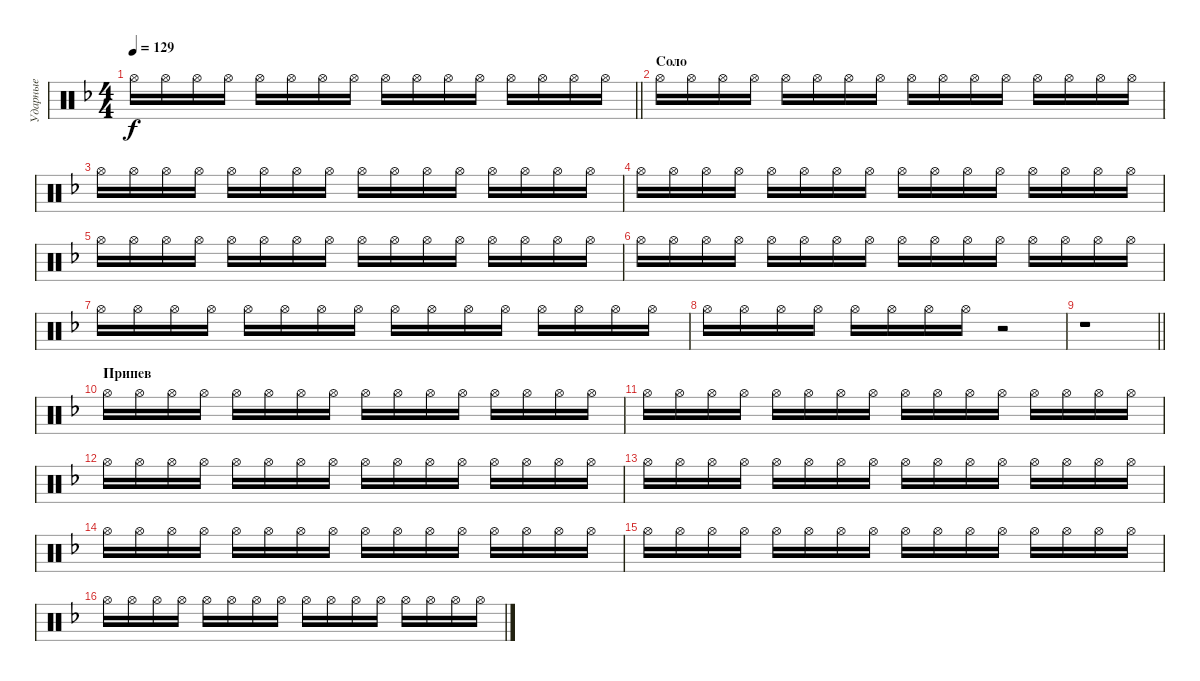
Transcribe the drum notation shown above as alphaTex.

\track ("Ударные" "Ударные") {instrument percussion}
\staff {score}
\articulation defaults
\ts (4 4)
\tempo 129
\clef neutral
\barLineRight lightlight
\ks dminor "Hi-Hat (open)".16{dy f} "Hi-Hat (open)".16 "Hi-Hat (open)".16 "Hi-Hat (open)".16 "Hi-Hat (open)".16 "Hi-Hat (open)".16 "Hi-Hat (open)".16 "Hi-Hat (open)".16 "Hi-Hat (open)".16 "Hi-Hat (open)".16 "Hi-Hat (open)".16 "Hi-Hat (open)".16 "Hi-Hat (open)".16 "Hi-Hat (open)".16 "Hi-Hat (open)".16 "Hi-Hat (open)".16
|
\section ("" "Соло")
"Hi-Hat (open)".16 "Hi-Hat (open)".16 "Hi-Hat (open)".16 "Hi-Hat (open)".16 "Hi-Hat (open)".16 "Hi-Hat (open)".16 "Hi-Hat (open)".16 "Hi-Hat (open)".16 "Hi-Hat (open)".16 "Hi-Hat (open)".16 "Hi-Hat (open)".16 "Hi-Hat (open)".16 "Hi-Hat (open)".16 "Hi-Hat (open)".16 "Hi-Hat (open)".16 "Hi-Hat (open)".16 |
"Hi-Hat (open)".16 "Hi-Hat (open)".16 "Hi-Hat (open)".16 "Hi-Hat (open)".16 "Hi-Hat (open)".16 "Hi-Hat (open)".16 "Hi-Hat (open)".16 "Hi-Hat (open)".16 "Hi-Hat (open)".16 "Hi-Hat (open)".16 "Hi-Hat (open)".16 "Hi-Hat (open)".16 "Hi-Hat (open)".16 "Hi-Hat (open)".16 "Hi-Hat (open)".16 "Hi-Hat (open)".16 |
"Hi-Hat (open)".16 "Hi-Hat (open)".16 "Hi-Hat (open)".16 "Hi-Hat (open)".16 "Hi-Hat (open)".16 "Hi-Hat (open)".16 "Hi-Hat (open)".16 "Hi-Hat (open)".16 "Hi-Hat (open)".16 "Hi-Hat (open)".16 "Hi-Hat (open)".16 "Hi-Hat (open)".16 "Hi-Hat (open)".16 "Hi-Hat (open)".16 "Hi-Hat (open)".16 "Hi-Hat (open)".16 |
"Hi-Hat (open)".16 "Hi-Hat (open)".16 "Hi-Hat (open)".16 "Hi-Hat (open)".16 "Hi-Hat (open)".16 "Hi-Hat (open)".16 "Hi-Hat (open)".16 "Hi-Hat (open)".16 "Hi-Hat (open)".16 "Hi-Hat (open)".16 "Hi-Hat (open)".16 "Hi-Hat (open)".16 "Hi-Hat (open)".16 "Hi-Hat (open)".16 "Hi-Hat (open)".16 "Hi-Hat (open)".16 |
"Hi-Hat (open)".16 "Hi-Hat (open)".16 "Hi-Hat (open)".16 "Hi-Hat (open)".16 "Hi-Hat (open)".16 "Hi-Hat (open)".16 "Hi-Hat (open)".16 "Hi-Hat (open)".16 "Hi-Hat (open)".16 "Hi-Hat (open)".16 "Hi-Hat (open)".16 "Hi-Hat (open)".16 "Hi-Hat (open)".16 "Hi-Hat (open)".16 "Hi-Hat (open)".16 "Hi-Hat (open)".16 |
"Hi-Hat (open)".16 "Hi-Hat (open)".16 "Hi-Hat (open)".16 "Hi-Hat (open)".16 "Hi-Hat (open)".16 "Hi-Hat (open)".16 "Hi-Hat (open)".16 "Hi-Hat (open)".16 "Hi-Hat (open)".16 "Hi-Hat (open)".16 "Hi-Hat (open)".16 "Hi-Hat (open)".16 "Hi-Hat (open)".16 "Hi-Hat (open)".16 "Hi-Hat (open)".16 "Hi-Hat (open)".16 |
"Hi-Hat (open)".16 "Hi-Hat (open)".16 "Hi-Hat (open)".16 "Hi-Hat (open)".16 "Hi-Hat (open)".16 "Hi-Hat (open)".16 "Hi-Hat (open)".16 "Hi-Hat (open)".16 r.2 |
\barLineRight lightlight
r.1 |
\section ("" "Припев")
"Hi-Hat (open)".16 "Hi-Hat (open)".16 "Hi-Hat (open)".16 "Hi-Hat (open)".16 "Hi-Hat (open)".16 "Hi-Hat (open)".16 "Hi-Hat (open)".16 "Hi-Hat (open)".16 "Hi-Hat (open)".16 "Hi-Hat (open)".16 "Hi-Hat (open)".16 "Hi-Hat (open)".16 "Hi-Hat (open)".16 "Hi-Hat (open)".16 "Hi-Hat (open)".16 "Hi-Hat (open)".16 |
"Hi-Hat (open)".16 "Hi-Hat (open)".16 "Hi-Hat (open)".16 "Hi-Hat (open)".16 "Hi-Hat (open)".16 "Hi-Hat (open)".16 "Hi-Hat (open)".16 "Hi-Hat (open)".16 "Hi-Hat (open)".16 "Hi-Hat (open)".16 "Hi-Hat (open)".16 "Hi-Hat (open)".16 "Hi-Hat (open)".16 "Hi-Hat (open)".16 "Hi-Hat (open)".16 "Hi-Hat (open)".16 |
"Hi-Hat (open)".16 "Hi-Hat (open)".16 "Hi-Hat (open)".16 "Hi-Hat (open)".16 "Hi-Hat (open)".16 "Hi-Hat (open)".16 "Hi-Hat (open)".16 "Hi-Hat (open)".16 "Hi-Hat (open)".16 "Hi-Hat (open)".16 "Hi-Hat (open)".16 "Hi-Hat (open)".16 "Hi-Hat (open)".16 "Hi-Hat (open)".16 "Hi-Hat (open)".16 "Hi-Hat (open)".16 |
"Hi-Hat (open)".16 "Hi-Hat (open)".16 "Hi-Hat (open)".16 "Hi-Hat (open)".16 "Hi-Hat (open)".16 "Hi-Hat (open)".16 "Hi-Hat (open)".16 "Hi-Hat (open)".16 "Hi-Hat (open)".16 "Hi-Hat (open)".16 "Hi-Hat (open)".16 "Hi-Hat (open)".16 "Hi-Hat (open)".16 "Hi-Hat (open)".16 "Hi-Hat (open)".16 "Hi-Hat (open)".16 |
"Hi-Hat (open)".16 "Hi-Hat (open)".16 "Hi-Hat (open)".16 "Hi-Hat (open)".16 "Hi-Hat (open)".16 "Hi-Hat (open)".16 "Hi-Hat (open)".16 "Hi-Hat (open)".16 "Hi-Hat (open)".16 "Hi-Hat (open)".16 "Hi-Hat (open)".16 "Hi-Hat (open)".16 "Hi-Hat (open)".16 "Hi-Hat (open)".16 "Hi-Hat (open)".16 "Hi-Hat (open)".16 |
"Hi-Hat (open)".16 "Hi-Hat (open)".16 "Hi-Hat (open)".16 "Hi-Hat (open)".16 "Hi-Hat (open)".16 "Hi-Hat (open)".16 "Hi-Hat (open)".16 "Hi-Hat (open)".16 "Hi-Hat (open)".16 "Hi-Hat (open)".16 "Hi-Hat (open)".16 "Hi-Hat (open)".16 "Hi-Hat (open)".16 "Hi-Hat (open)".16 "Hi-Hat (open)".16 "Hi-Hat (open)".16 |
"Hi-Hat (open)".16 "Hi-Hat (open)".16 "Hi-Hat (open)".16 "Hi-Hat (open)".16 "Hi-Hat (open)".16 "Hi-Hat (open)".16 "Hi-Hat (open)".16 "Hi-Hat (open)".16 "Hi-Hat (open)".16 "Hi-Hat (open)".16 "Hi-Hat (open)".16 "Hi-Hat (open)".16 "Hi-Hat (open)".16 "Hi-Hat (open)".16 "Hi-Hat (open)".16 "Hi-Hat (open)".16
